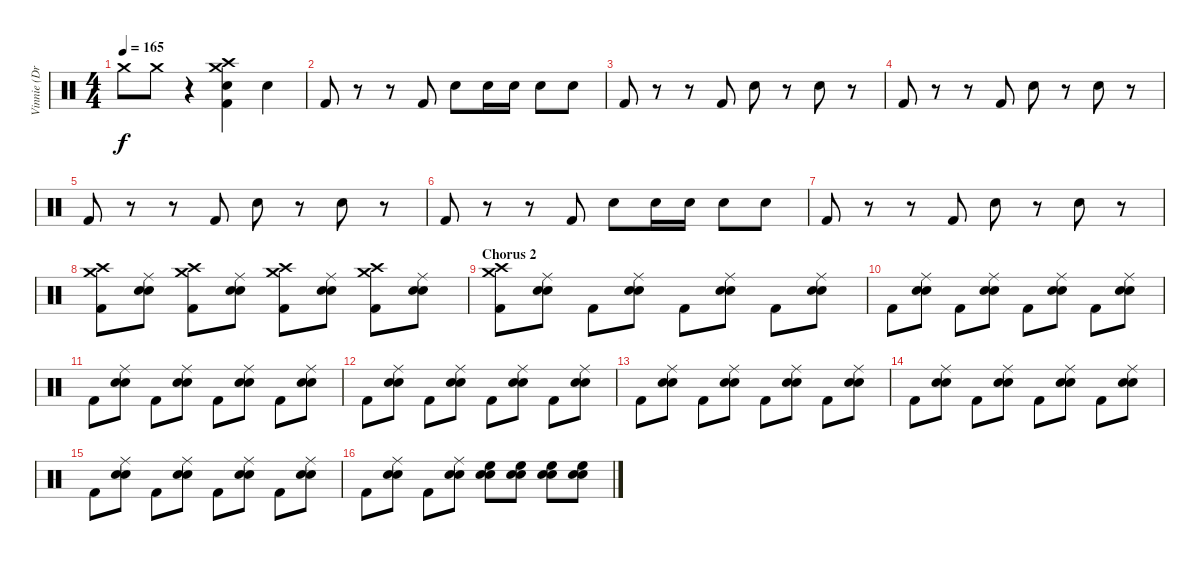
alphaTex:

\track ("Vinnie (Drums)" "Vinnie (Dr") {instrument percussion}
\staff {score}
\articulation defaults
\ts (4 4)
\tempo 165
\clef neutral
\ks c "Crash medium (hit)".8{dy f} "Crash medium (hit)".8
r.4 ("Crash medium (hit)" "Crash high (hit)" "Kick (hit) 2" "Snare (hit) 2").4 "Snare (hit) 2".4 |
"Kick (hit) 2".8 r.8 r.8 "Kick (hit) 2".8 "Snare (hit) 2".8 "Snare (hit) 2".16 "Snare (hit) 2".16 "Snare (hit) 2".8 "Snare (hit) 2".8 |
"Kick (hit) 2".8 r.8 r.8 "Kick (hit) 2".8 "Snare (hit) 2".8 r.8 "Snare (hit) 2".8 r.8 |
"Kick (hit) 2".8 r.8 r.8 "Kick (hit) 2".8 "Snare (hit) 2".8 r.8 "Snare (hit) 2".8 r.8 |
"Kick (hit) 2".8 r.8 r.8 "Kick (hit) 2".8 "Snare (hit) 2".8 r.8 "Snare (hit) 2".8 r.8 |
"Kick (hit) 2".8 r.8 r.8 "Kick (hit) 2".8 "Snare (hit) 2".8 "Snare (hit) 2".16 "Snare (hit) 2".16 "Snare (hit) 2".8 "Snare (hit) 2".8 |
"Kick (hit) 2".8 r.8 r.8 "Kick (hit) 2".8 "Snare (hit) 2".8 r.8 "Snare (hit) 2".8 r.8 |
("Kick (hit) 2" "Crash high (hit)" "Crash medium (hit)").8 ("Snare (hit) 2" "Electric Snare (hit)" "Ride (middle)").8 ("Kick (hit) 2" "Crash high (hit)" "Crash medium (hit)").8 ("Snare (hit) 2" "Electric Snare (hit)" "Ride (middle)").8 ("Kick (hit) 2" "Crash high (hit)" "Crash medium (hit)").8 ("Snare (hit) 2" "Electric Snare (hit)" "Ride (middle)").8 ("Kick (hit) 2" "Crash high (hit)" "Crash medium (hit)").8 ("Snare (hit) 2" "Electric Snare (hit)" "Ride (middle)").8 |
\section ("" "Chorus 2")
("Kick (hit) 2" "Crash medium (hit)" "Crash high (hit)").8 ("Snare (hit) 2" "Electric Snare (hit)" "Ride (middle)").8 "Kick (hit) 2".8 ("Snare (hit) 2" "Electric Snare (hit)" "Ride (middle)").8 "Kick (hit) 2".8 ("Snare (hit) 2" "Electric Snare (hit)" "Ride (middle)").8 "Kick (hit) 2".8 ("Snare (hit) 2" "Electric Snare (hit)" "Ride (middle)").8 |
"Kick (hit) 2".8 ("Snare (hit) 2" "Electric Snare (hit)" "Ride (middle)").8 "Kick (hit) 2".8 ("Snare (hit) 2" "Electric Snare (hit)" "Ride (middle)").8 "Kick (hit) 2".8 ("Snare (hit) 2" "Electric Snare (hit)" "Ride (middle)").8 "Kick (hit) 2".8 ("Snare (hit) 2" "Electric Snare (hit)" "Ride (middle)").8 |
"Kick (hit) 2".8 ("Snare (hit) 2" "Electric Snare (hit)" "Ride (middle)").8 "Kick (hit) 2".8 ("Snare (hit) 2" "Electric Snare (hit)" "Ride (middle)").8 "Kick (hit) 2".8 ("Snare (hit) 2" "Electric Snare (hit)" "Ride (middle)").8 "Kick (hit) 2".8 ("Snare (hit) 2" "Electric Snare (hit)" "Ride (middle)").8 |
"Kick (hit) 2".8 ("Snare (hit) 2" "Electric Snare (hit)" "Ride (middle)").8 "Kick (hit) 2".8 ("Snare (hit) 2" "Electric Snare (hit)" "Ride (middle)").8 "Kick (hit) 2".8 ("Snare (hit) 2" "Electric Snare (hit)" "Ride (middle)").8 "Kick (hit) 2".8 ("Snare (hit) 2" "Electric Snare (hit)" "Ride (middle)").8 |
"Kick (hit) 2".8 ("Snare (hit) 2" "Electric Snare (hit)" "Ride (middle)").8 "Kick (hit) 2".8 ("Snare (hit) 2" "Electric Snare (hit)" "Ride (middle)").8 "Kick (hit) 2".8 ("Snare (hit) 2" "Electric Snare (hit)" "Ride (middle)").8 "Kick (hit) 2".8 ("Snare (hit) 2" "Electric Snare (hit)" "Ride (middle)").8 |
"Kick (hit) 2".8 ("Snare (hit) 2" "Electric Snare (hit)" "Ride (middle)").8 "Kick (hit) 2".8 ("Snare (hit) 2" "Electric Snare (hit)" "Ride (middle)").8 "Kick (hit) 2".8 ("Snare (hit) 2" "Electric Snare (hit)" "Ride (middle)").8 "Kick (hit) 2".8 ("Snare (hit) 2" "Electric Snare (hit)" "Ride (middle)").8 |
"Kick (hit) 2".8 ("Snare (hit) 2" "Electric Snare (hit)" "Ride (middle)").8 "Kick (hit) 2".8 ("Snare (hit) 2" "Electric Snare (hit)" "Ride (middle)").8 "Kick (hit) 2".8 ("Snare (hit) 2" "Electric Snare (hit)" "Ride (middle)").8 "Kick (hit) 2".8 ("Snare (hit) 2" "Electric Snare (hit)" "Ride (middle)").8 |
"Kick (hit) 2".8 ("Snare (hit) 2" "Electric Snare (hit)" "Ride (middle)").8 "Kick (hit) 2".8 ("Snare (hit) 2" "Electric Snare (hit)" "Ride (middle)").8 ("Electric Snare (hit)" "Snare (hit) 2" "High Floor Tom (hit)").8 ("Electric Snare (hit)" "Snare (hit) 2" "High Floor Tom (hit)").8 ("Electric Snare (hit)" "Snare (hit) 2" "High Floor Tom (hit)").8 ("Electric Snare (hit)" "Snare (hit) 2" "High Floor Tom (hit)").8
